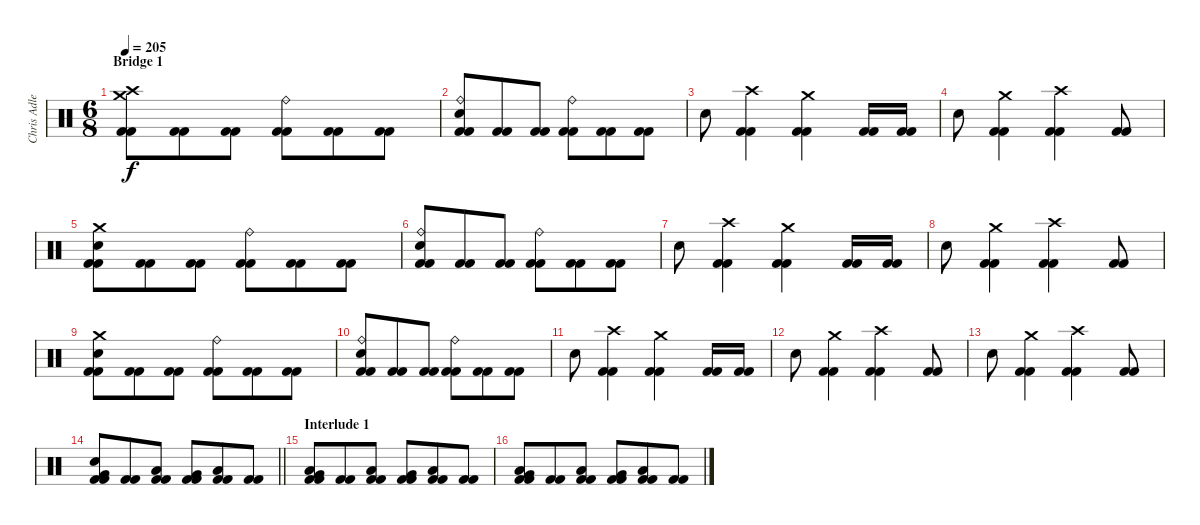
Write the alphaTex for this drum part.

\track ("Chris Adler" "Chris Adle") {instrument percussion}
\staff {score}
\articulation defaults
\ts (6 8)
\section ("" "Bridge 1")
\tempo 205
\clef neutral
\ks c
("Crash medium (hit)" "Crash high (hit)" "Kick (hit) 2" "Kick (hit) 2").8{dy f} ("Kick (hit) 2" "Kick (hit) 2").8 ("Kick (hit) 2" "Kick (hit) 2").8 ("Ride (bell)" "Kick (hit) 2" "Kick (hit) 2").8 ("Kick (hit) 2" "Kick (hit) 2").8 ("Kick (hit) 2" "Kick (hit) 2").8 |
("Ride (bell)" "Electric Snare (hit)" "Kick (hit) 2" "Kick (hit) 2").8 ("Kick (hit) 2" "Kick (hit) 2").8 ("Kick (hit) 2" "Kick (hit) 2").8 ("Ride (bell)" "Kick (hit) 2" "Kick (hit) 2").8 ("Kick (hit) 2" "Kick (hit) 2").8 ("Kick (hit) 2" "Kick (hit) 2").8 |
"Electric Snare (hit)".8 ("Crash high (hit)" "Kick (hit) 2" "Kick (hit) 2").4 ("Crash medium (hit)" "Kick (hit) 2" "Kick (hit) 2").4 ("Kick (hit) 2" "Kick (hit) 2").16 ("Kick (hit) 2" "Kick (hit) 2").16 |
"Electric Snare (hit)".8 ("Crash medium (hit)" "Kick (hit) 2" "Kick (hit) 2").4 ("Crash high (hit)" "Kick (hit) 2" "Kick (hit) 2").4 ("Kick (hit) 2" "Kick (hit) 2").8 |
("Crash medium (hit)" "Electric Snare (hit)" "Kick (hit) 2" "Kick (hit) 2").8 ("Kick (hit) 2" "Kick (hit) 2").8 ("Kick (hit) 2" "Kick (hit) 2").8 ("Ride (bell)" "Kick (hit) 2" "Kick (hit) 2").8 ("Kick (hit) 2" "Kick (hit) 2").8 ("Kick (hit) 2" "Kick (hit) 2").8 |
("Ride (bell)" "Electric Snare (hit)" "Kick (hit) 2" "Kick (hit) 2").8 ("Kick (hit) 2" "Kick (hit) 2").8 ("Kick (hit) 2" "Kick (hit) 2").8 ("Ride (bell)" "Kick (hit) 2" "Kick (hit) 2").8 ("Kick (hit) 2" "Kick (hit) 2").8 ("Kick (hit) 2" "Kick (hit) 2").8 |
"Electric Snare (hit)".8 ("Crash high (hit)" "Kick (hit) 2" "Kick (hit) 2").4 ("Crash medium (hit)" "Kick (hit) 2" "Kick (hit) 2").4 ("Kick (hit) 2" "Kick (hit) 2").16 ("Kick (hit) 2" "Kick (hit) 2").16 |
"Electric Snare (hit)".8 ("Crash medium (hit)" "Kick (hit) 2" "Kick (hit) 2").4 ("Crash high (hit)" "Kick (hit) 2" "Kick (hit) 2").4 ("Kick (hit) 2" "Kick (hit) 2").8 |
("Crash medium (hit)" "Electric Snare (hit)" "Kick (hit) 2" "Kick (hit) 2").8 ("Kick (hit) 2" "Kick (hit) 2").8 ("Kick (hit) 2" "Kick (hit) 2").8 ("Ride (bell)" "Kick (hit) 2" "Kick (hit) 2").8 ("Kick (hit) 2" "Kick (hit) 2").8 ("Kick (hit) 2" "Kick (hit) 2").8 |
("Ride (bell)" "Electric Snare (hit)" "Kick (hit) 2" "Kick (hit) 2").8 ("Kick (hit) 2" "Kick (hit) 2").8 ("Kick (hit) 2" "Kick (hit) 2").8 ("Ride (bell)" "Kick (hit) 2" "Kick (hit) 2").8 ("Kick (hit) 2" "Kick (hit) 2").8 ("Kick (hit) 2" "Kick (hit) 2").8 |
"Electric Snare (hit)".8 ("Crash high (hit)" "Kick (hit) 2" "Kick (hit) 2").4 ("Crash medium (hit)" "Kick (hit) 2" "Kick (hit) 2").4 ("Kick (hit) 2" "Kick (hit) 2").16 ("Kick (hit) 2" "Kick (hit) 2").16 |
"Electric Snare (hit)".8 ("Crash medium (hit)" "Kick (hit) 2" "Kick (hit) 2").4 ("Crash high (hit)" "Kick (hit) 2" "Kick (hit) 2").4 ("Kick (hit) 2" "Kick (hit) 2").8 |
"Electric Snare (hit)".8 ("Crash medium (hit)" "Kick (hit) 2" "Kick (hit) 2").4 ("Crash high (hit)" "Kick (hit) 2" "Kick (hit) 2").4 ("Kick (hit) 2" "Kick (hit) 2").8 |
\barLineRight lightlight
("Very Low Tom (hit)" "Electric Snare (hit)" "Kick (hit) 2" "Kick (hit) 2").8 ("Kick (hit) 2" "Kick (hit) 2").8 ("Low Floor Tom (hit)" "Kick (hit) 2" "Kick (hit) 2").8 ("Very Low Tom (hit)" "Kick (hit) 2" "Kick (hit) 2").8 ("Low Floor Tom (hit)" "Kick (hit) 2" "Kick (hit) 2").8 ("Kick (hit) 2" "Kick (hit) 2").8 |
\section ("" "Interlude 1")
("Very Low Tom (hit)" "Low Floor Tom (hit)" "Kick (hit) 2" "Kick (hit) 2").8 ("Kick (hit) 2" "Kick (hit) 2").8 ("Low Floor Tom (hit)" "Kick (hit) 2" "Kick (hit) 2").8 ("Very Low Tom (hit)" "Kick (hit) 2" "Kick (hit) 2").8 ("Low Floor Tom (hit)" "Kick (hit) 2" "Kick (hit) 2").8 ("Kick (hit) 2" "Kick (hit) 2").8 |
("Very Low Tom (hit)" "Low Floor Tom (hit)" "Kick (hit) 2" "Kick (hit) 2").8 ("Kick (hit) 2" "Kick (hit) 2").8 ("Low Floor Tom (hit)" "Kick (hit) 2" "Kick (hit) 2").8 ("Very Low Tom (hit)" "Kick (hit) 2" "Kick (hit) 2").8 ("Low Floor Tom (hit)" "Kick (hit) 2" "Kick (hit) 2").8 ("Kick (hit) 2" "Kick (hit) 2").8
